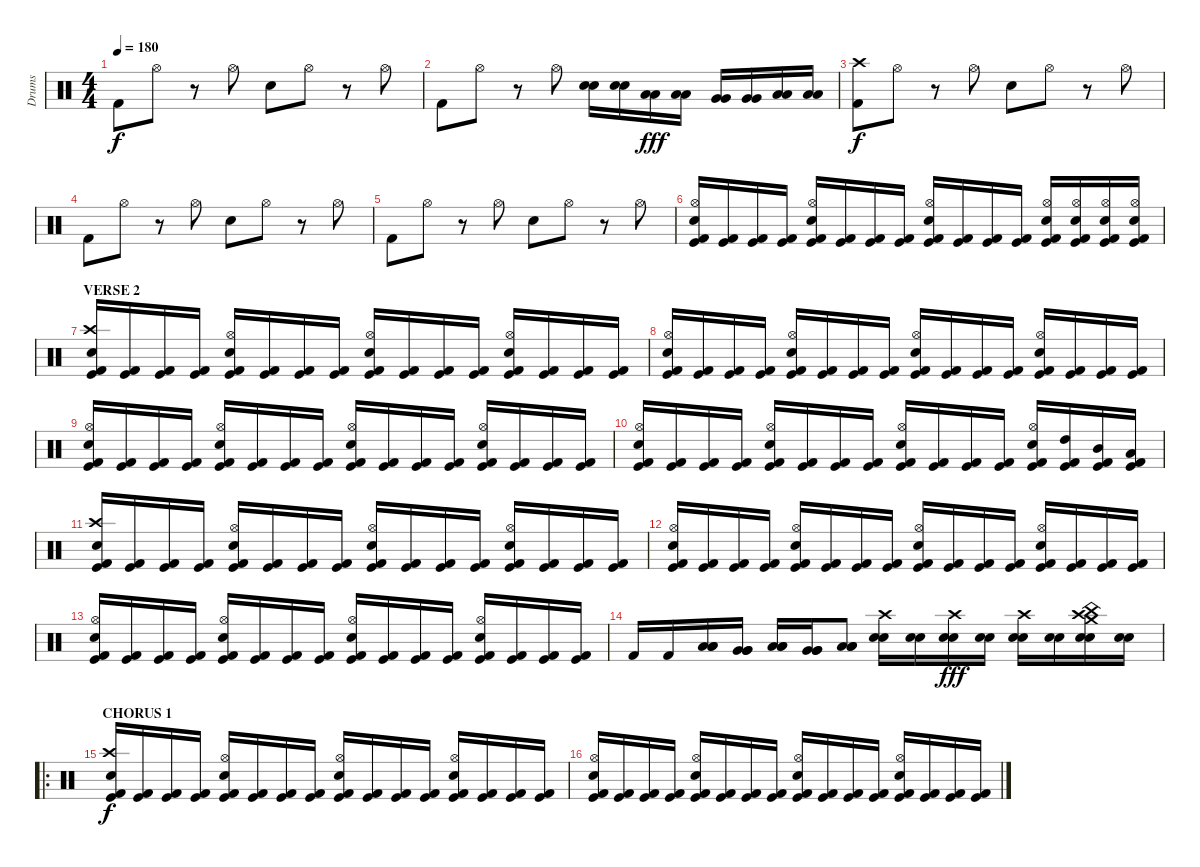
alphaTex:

\track ("Drums" "Drums") {instrument percussion}
\staff {score}
\articulation defaults
\ts (4 4)
\tempo 180
\clef neutral
\ks c "Kick (hit) 2".8{dy f} "Hi-Hat (open)".8
r.8 "Hi-Hat (open)".8 "Electric Snare (hit)".8 "Hi-Hat (open)".8 r.8 "Hi-Hat (open)".8 |
"Kick (hit) 2".8 "Hi-Hat (open)".8 r.8 "Hi-Hat (open)".8 ("Electric Snare (hit)" "Electric Snare (hit)").16 ("Electric Snare (hit)" "Electric Snare (hit)").16 ("Low Tom (hit)" "Low Tom (hit)").16{dy fff} ("Low Tom (hit)" "Low Tom (hit)").16 ("Very Low Tom (hit)" "Very Low Tom (hit)").16 ("Very Low Tom (hit)" "Very Low Tom (hit)").16 ("Low Floor Tom (hit)" "Low Floor Tom (hit)").16 ("Low Floor Tom (hit)" "Low Floor Tom (hit)").16 |
("Crash high (hit)" "Kick (hit) 2").8{dy f} "Hi-Hat (open)".8 r.8 "Hi-Hat (open)".8 "Electric Snare (hit)".8 "Hi-Hat (open)".8 r.8 "Hi-Hat (open)".8 |
"Kick (hit) 2".8 "Hi-Hat (open)".8 r.8 "Hi-Hat (open)".8 "Electric Snare (hit)".8 "Hi-Hat (open)".8 r.8 "Hi-Hat (open)".8 |
"Kick (hit) 2".8 "Hi-Hat (open)".8 r.8 "Hi-Hat (open)".8 "Electric Snare (hit)".8 "Hi-Hat (open)".8 r.8 "Hi-Hat (open)".8 |
("Hi-Hat (open)" "Electric Snare (hit)" "Kick (hit)" "Kick (hit) 2").16 ("Kick (hit)" "Kick (hit) 2").16 ("Kick (hit)" "Kick (hit) 2").16 ("Kick (hit)" "Kick (hit) 2").16 ("Hi-Hat (open)" "Electric Snare (hit)" "Kick (hit)" "Kick (hit) 2").16 ("Kick (hit)" "Kick (hit) 2").16 ("Kick (hit)" "Kick (hit) 2").16 ("Kick (hit)" "Kick (hit) 2").16 ("Hi-Hat (open)" "Electric Snare (hit)" "Kick (hit)" "Kick (hit) 2").16 ("Kick (hit)" "Kick (hit) 2").16 ("Kick (hit)" "Kick (hit) 2").16 ("Kick (hit)" "Kick (hit) 2").16 ("Hi-Hat (open)" "Electric Snare (hit)" "Kick (hit)" "Kick (hit) 2").16 ("Hi-Hat (open)" "Electric Snare (hit)" "Kick (hit)" "Kick (hit) 2").16 ("Hi-Hat (open)" "Electric Snare (hit)" "Kick (hit)" "Kick (hit) 2").16 ("Hi-Hat (open)" "Electric Snare (hit)" "Kick (hit)" "Kick (hit) 2").16 |
\section ("" "VERSE 2")
("Crash high (hit)" "Electric Snare (hit)" "Kick (hit)" "Kick (hit) 2").16 ("Kick (hit)" "Kick (hit) 2").16 ("Kick (hit)" "Kick (hit) 2").16 ("Kick (hit)" "Kick (hit) 2").16 ("Hi-Hat (open)" "Electric Snare (hit)" "Kick (hit)" "Kick (hit) 2").16 ("Kick (hit)" "Kick (hit) 2").16 ("Kick (hit)" "Kick (hit) 2").16 ("Kick (hit)" "Kick (hit) 2").16 ("Hi-Hat (open)" "Electric Snare (hit)" "Kick (hit)" "Kick (hit) 2").16 ("Kick (hit)" "Kick (hit) 2").16 ("Kick (hit)" "Kick (hit) 2").16 ("Kick (hit)" "Kick (hit) 2").16 ("Hi-Hat (open)" "Electric Snare (hit)" "Kick (hit)" "Kick (hit) 2").16 ("Kick (hit)" "Kick (hit) 2").16 ("Kick (hit)" "Kick (hit) 2").16 ("Kick (hit)" "Kick (hit) 2").16 |
("Hi-Hat (open)" "Electric Snare (hit)" "Kick (hit)" "Kick (hit) 2").16 ("Kick (hit)" "Kick (hit) 2").16 ("Kick (hit)" "Kick (hit) 2").16 ("Kick (hit)" "Kick (hit) 2").16 ("Hi-Hat (open)" "Electric Snare (hit)" "Kick (hit)" "Kick (hit) 2").16 ("Kick (hit)" "Kick (hit) 2").16 ("Kick (hit)" "Kick (hit) 2").16 ("Kick (hit)" "Kick (hit) 2").16 ("Hi-Hat (open)" "Electric Snare (hit)" "Kick (hit)" "Kick (hit) 2").16 ("Kick (hit)" "Kick (hit) 2").16 ("Kick (hit)" "Kick (hit) 2").16 ("Kick (hit)" "Kick (hit) 2").16 ("Hi-Hat (open)" "Electric Snare (hit)" "Kick (hit)" "Kick (hit) 2").16 ("Kick (hit)" "Kick (hit) 2").16 ("Kick (hit)" "Kick (hit) 2").16 ("Kick (hit)" "Kick (hit) 2").16 |
("Hi-Hat (open)" "Electric Snare (hit)" "Kick (hit)" "Kick (hit) 2").16 ("Kick (hit)" "Kick (hit) 2").16 ("Kick (hit)" "Kick (hit) 2").16 ("Kick (hit)" "Kick (hit) 2").16 ("Hi-Hat (open)" "Electric Snare (hit)" "Kick (hit)" "Kick (hit) 2").16 ("Kick (hit)" "Kick (hit) 2").16 ("Kick (hit)" "Kick (hit) 2").16 ("Kick (hit)" "Kick (hit) 2").16 ("Hi-Hat (open)" "Electric Snare (hit)" "Kick (hit)" "Kick (hit) 2").16 ("Kick (hit)" "Kick (hit) 2").16 ("Kick (hit)" "Kick (hit) 2").16 ("Kick (hit)" "Kick (hit) 2").16 ("Hi-Hat (open)" "Electric Snare (hit)" "Kick (hit)" "Kick (hit) 2").16 ("Kick (hit)" "Kick (hit) 2").16 ("Kick (hit)" "Kick (hit) 2").16 ("Kick (hit)" "Kick (hit) 2").16 |
("Hi-Hat (open)" "Electric Snare (hit)" "Kick (hit)" "Kick (hit) 2").16 ("Kick (hit)" "Kick (hit) 2").16 ("Kick (hit)" "Kick (hit) 2").16 ("Kick (hit)" "Kick (hit) 2").16 ("Hi-Hat (open)" "Electric Snare (hit)" "Kick (hit)" "Kick (hit) 2").16 ("Kick (hit)" "Kick (hit) 2").16 ("Kick (hit)" "Kick (hit) 2").16 ("Kick (hit)" "Kick (hit) 2").16 ("Hi-Hat (open)" "Electric Snare (hit)" "Kick (hit)" "Kick (hit) 2").16 ("Kick (hit)" "Kick (hit) 2").16 ("Kick (hit)" "Kick (hit) 2").16 ("Kick (hit)" "Kick (hit) 2").16 ("Hi-Hat (open)" "Electric Snare (hit)" "Kick (hit)" "Kick (hit) 2").16 ("High Tom (hit)" "Kick (hit)" "Kick (hit) 2").16 ("Mid Tom (hit)" "Kick (hit)" "Kick (hit) 2").16 ("Low Tom (hit)" "Kick (hit)" "Kick (hit) 2").16 |
("Crash high (hit)" "Electric Snare (hit)" "Kick (hit)" "Kick (hit) 2").16 ("Kick (hit)" "Kick (hit) 2").16 ("Kick (hit)" "Kick (hit) 2").16 ("Kick (hit)" "Kick (hit) 2").16 ("Hi-Hat (open)" "Electric Snare (hit)" "Kick (hit)" "Kick (hit) 2").16 ("Kick (hit)" "Kick (hit) 2").16 ("Kick (hit)" "Kick (hit) 2").16 ("Kick (hit)" "Kick (hit) 2").16 ("Hi-Hat (open)" "Electric Snare (hit)" "Kick (hit)" "Kick (hit) 2").16 ("Kick (hit)" "Kick (hit) 2").16 ("Kick (hit)" "Kick (hit) 2").16 ("Kick (hit)" "Kick (hit) 2").16 ("Hi-Hat (open)" "Electric Snare (hit)" "Kick (hit)" "Kick (hit) 2").16 ("Kick (hit)" "Kick (hit) 2").16 ("Kick (hit)" "Kick (hit) 2").16 ("Kick (hit)" "Kick (hit) 2").16 |
("Hi-Hat (open)" "Electric Snare (hit)" "Kick (hit)" "Kick (hit) 2").16 ("Kick (hit)" "Kick (hit) 2").16 ("Kick (hit)" "Kick (hit) 2").16 ("Kick (hit)" "Kick (hit) 2").16 ("Hi-Hat (open)" "Electric Snare (hit)" "Kick (hit)" "Kick (hit) 2").16 ("Kick (hit)" "Kick (hit) 2").16 ("Kick (hit)" "Kick (hit) 2").16 ("Kick (hit)" "Kick (hit) 2").16 ("Hi-Hat (open)" "Electric Snare (hit)" "Kick (hit)" "Kick (hit) 2").16 ("Kick (hit)" "Kick (hit) 2").16 ("Kick (hit)" "Kick (hit) 2").16 ("Kick (hit)" "Kick (hit) 2").16 ("Hi-Hat (open)" "Electric Snare (hit)" "Kick (hit)" "Kick (hit) 2").16 ("Kick (hit)" "Kick (hit) 2").16 ("Kick (hit)" "Kick (hit) 2").16 ("Kick (hit)" "Kick (hit) 2").16 |
("Hi-Hat (open)" "Electric Snare (hit)" "Kick (hit)" "Kick (hit) 2").16 ("Kick (hit)" "Kick (hit) 2").16 ("Kick (hit)" "Kick (hit) 2").16 ("Kick (hit)" "Kick (hit) 2").16 ("Hi-Hat (open)" "Electric Snare (hit)" "Kick (hit)" "Kick (hit) 2").16 ("Kick (hit)" "Kick (hit) 2").16 ("Kick (hit)" "Kick (hit) 2").16 ("Kick (hit)" "Kick (hit) 2").16 ("Hi-Hat (open)" "Electric Snare (hit)" "Kick (hit)" "Kick (hit) 2").16 ("Kick (hit)" "Kick (hit) 2").16 ("Kick (hit)" "Kick (hit) 2").16 ("Kick (hit)" "Kick (hit) 2").16 ("Hi-Hat (open)" "Electric Snare (hit)" "Kick (hit)" "Kick (hit) 2").16 ("Kick (hit)" "Kick (hit) 2").16 ("Kick (hit)" "Kick (hit) 2").16 ("Kick (hit)" "Kick (hit) 2").16 |
"Kick (hit) 2".16 "Kick (hit) 2".16 ("Low Tom (hit)" "Low Tom (hit)" "Low Tom (hit)").16 ("Very Low Tom (hit)" "Very Low Tom (hit)" "Very Low Tom (hit)").16 ("Low Tom (hit)" "Low Tom (hit)" "Low Tom (hit)").16 ("Very Low Tom (hit)" "Very Low Tom (hit)" "Very Low Tom (hit)").16 ("Low Floor Tom (hit)" "Low Floor Tom (hit)" "Low Floor Tom (hit)").8 ("Crash high (hit)" "Electric Snare (hit)" "Electric Snare (hit)").16 ("Electric Snare (hit)" "Electric Snare (hit)").16 ("Crash high (hit)" "Electric Snare (hit)" "Electric Snare (hit)").16{dy fff} ("Electric Snare (hit)" "Electric Snare (hit)").16 ("Crash high (hit)" "Electric Snare (hit)" "Electric Snare (hit)").16 ("Electric Snare (hit)" "Electric Snare (hit)").16 ("Crash medium (hit)" "Crash high (hit)" "China (hit)" "Electric Snare (hit)" "Electric Snare (hit)").16 ("Electric Snare (hit)" "Electric Snare (hit)").16 |
\ro
\section ("" "CHORUS 1")
("Crash high (hit)" "Electric Snare (hit)" "Kick (hit)" "Kick (hit) 2").16{dy f} ("Kick (hit)" "Kick (hit) 2").16 ("Kick (hit)" "Kick (hit) 2").16 ("Kick (hit)" "Kick (hit) 2").16 ("Hi-Hat (open)" "Electric Snare (hit)" "Kick (hit)" "Kick (hit) 2").16 ("Kick (hit)" "Kick (hit) 2").16 ("Kick (hit)" "Kick (hit) 2").16 ("Kick (hit)" "Kick (hit) 2").16 ("Hi-Hat (open)" "Electric Snare (hit)" "Kick (hit)" "Kick (hit) 2").16 ("Kick (hit)" "Kick (hit) 2").16 ("Kick (hit)" "Kick (hit) 2").16 ("Kick (hit)" "Kick (hit) 2").16 ("Hi-Hat (open)" "Electric Snare (hit)" "Kick (hit)" "Kick (hit) 2").16 ("Kick (hit)" "Kick (hit) 2").16 ("Kick (hit)" "Kick (hit) 2").16 ("Kick (hit)" "Kick (hit) 2").16 |
("Hi-Hat (open)" "Electric Snare (hit)" "Kick (hit)" "Kick (hit) 2").16 ("Kick (hit)" "Kick (hit) 2").16 ("Kick (hit)" "Kick (hit) 2").16 ("Kick (hit)" "Kick (hit) 2").16 ("Hi-Hat (open)" "Electric Snare (hit)" "Kick (hit)" "Kick (hit) 2").16 ("Kick (hit)" "Kick (hit) 2").16 ("Kick (hit)" "Kick (hit) 2").16 ("Kick (hit)" "Kick (hit) 2").16 ("Hi-Hat (open)" "Electric Snare (hit)" "Kick (hit)" "Kick (hit) 2").16 ("Kick (hit)" "Kick (hit) 2").16 ("Kick (hit)" "Kick (hit) 2").16 ("Kick (hit)" "Kick (hit) 2").16 ("Hi-Hat (open)" "Electric Snare (hit)" "Kick (hit)" "Kick (hit) 2").16 ("Kick (hit)" "Kick (hit) 2").16 ("Kick (hit)" "Kick (hit) 2").16 ("Kick (hit)" "Kick (hit) 2").16
